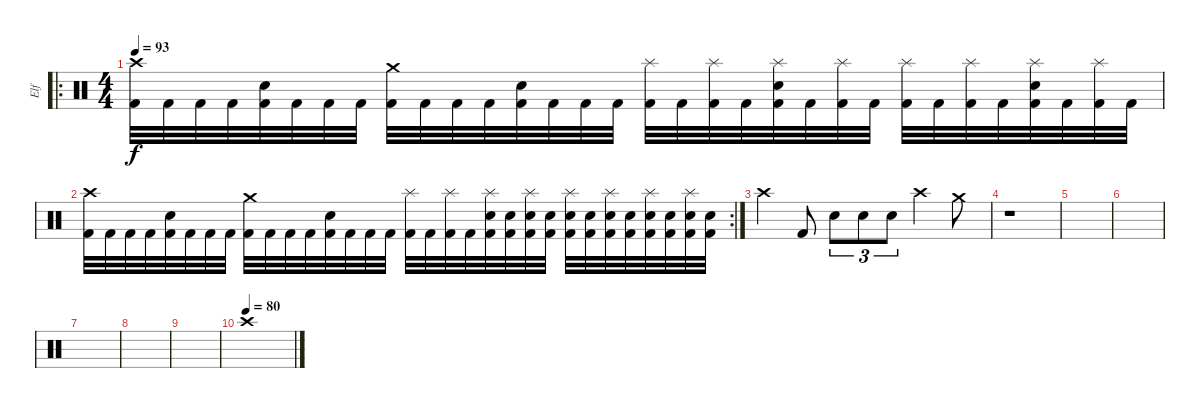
\track ("Elf" "Elf") {instrument percussion}
\staff {score}
\articulation defaults
\ro
\ts (4 4)
\tempo 93
\clef neutral
\ks c
("Crash high (hit)" "Kick (hit) 2").32{dy f volume 12} "Kick (hit) 2".32 "Kick (hit) 2".32 "Kick (hit) 2".32 ("Snare (hit) 2" "Kick (hit) 2").32 "Kick (hit) 2".32 "Kick (hit) 2".32 "Kick (hit) 2".32 ("Crash medium (hit)" "Kick (hit) 2").32 "Kick (hit) 2".32 "Kick (hit) 2".32 "Kick (hit) 2".32 ("Snare (hit) 2" "Kick (hit) 2").32 "Kick (hit) 2".32 "Kick (hit) 2".32 "Kick (hit) 2".32 ("Splash (hit)" "Kick (hit) 2").32 "Kick (hit) 2".32 ("Splash (hit)" "Kick (hit) 2").32 "Kick (hit) 2".32 ("Splash (hit)" "Snare (hit) 2" "Kick (hit) 2").32 "Kick (hit) 2".32 ("Splash (hit)" "Kick (hit) 2").32 "Kick (hit) 2".32 ("Splash (hit)" "Kick (hit) 2").32 "Kick (hit) 2".32 ("Splash (hit)" "Kick (hit) 2").32 "Kick (hit) 2".32 ("Splash (hit)" "Snare (hit) 2" "Kick (hit) 2").32 "Kick (hit) 2".32 ("Splash (hit)" "Kick (hit) 2").32 "Kick (hit) 2".32 |
\rc 2
("Crash high (hit)" "Kick (hit) 2").32 "Kick (hit) 2".32 "Kick (hit) 2".32 "Kick (hit) 2".32 ("Snare (hit) 2" "Kick (hit) 2").32 "Kick (hit) 2".32 "Kick (hit) 2".32 "Kick (hit) 2".32 ("Crash medium (hit)" "Kick (hit) 2").32 "Kick (hit) 2".32 "Kick (hit) 2".32 "Kick (hit) 2".32 ("Snare (hit) 2" "Kick (hit) 2").32 "Kick (hit) 2".32 "Kick (hit) 2".32 "Kick (hit) 2".32 ("Splash (hit)" "Kick (hit) 2").32 "Kick (hit) 2".32 ("Splash (hit)" "Kick (hit) 2").32 "Kick (hit) 2".32 ("Splash (hit)" "Snare (hit) 2" "Kick (hit) 2").32 ("Snare (hit) 2" "Kick (hit) 2").32 ("Splash (hit)" "Snare (hit) 2" "Kick (hit) 2").32 ("Snare (hit) 2" "Kick (hit) 2").32 ("Splash (hit)" "Snare (hit) 2" "Kick (hit) 2").32 ("Snare (hit) 2" "Kick (hit) 2").32 ("Splash (hit)" "Snare (hit) 2" "Kick (hit) 2").32 ("Snare (hit) 2" "Kick (hit) 2").32 ("Splash (hit)" "Snare (hit) 2" "Kick (hit) 2").32 ("Snare (hit) 2" "Kick (hit) 2").32 ("Splash (hit)" "Snare (hit) 2" "Kick (hit) 2").32 ("Snare (hit) 2" "Kick (hit) 2").32 |
"Crash high (hit)".4 "Kick (hit) 2".8 "Snare (hit) 2".8{tu (3 2)} "Snare (hit) 2".8{tu (3 2)} "Snare (hit) 2".8{tu (3 2)} "Crash high (hit)".4 "Crash medium (hit)".8 |
r.1 |
|
|
|
|
|
\tempo (80)
"Crash high (hit)".1
